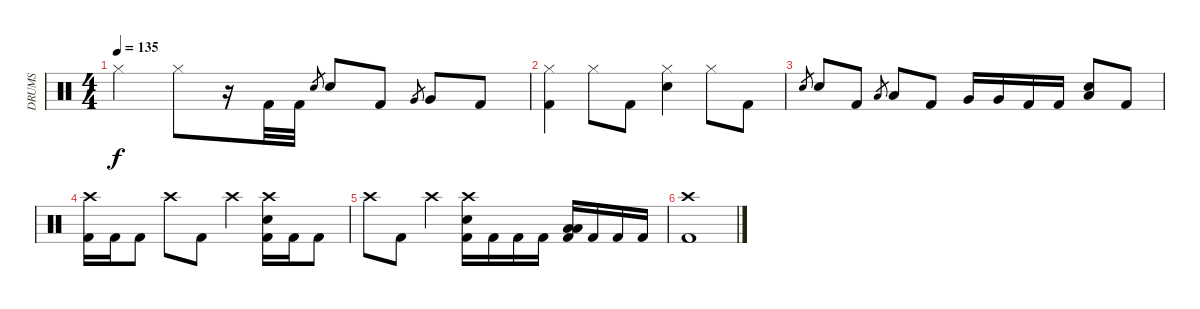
\track ("DRUMS" "DRUMS") {instrument percussion}
\staff {score}
\articulation defaults
\ts (4 4)
\tempo 135
\clef neutral
\ks c "Hi-Hat (closed)".4{dy f} "Hi-Hat (closed)".8
r.16 "Kick (hit) 2".32 "Kick (hit) 2".32 "Electric Snare (hit)".8{gr} "Electric Snare (hit)".8 "Kick (hit) 2".8 "Very Low Tom (hit)".8{gr} "Very Low Tom (hit)".8 "Kick (hit) 2".8 |
("Hi-Hat (closed)" "Kick (hit) 2").4 "Hi-Hat (closed)".8 "Kick (hit) 2".8 ("Hi-Hat (closed)" "Electric Snare (hit)").4 "Hi-Hat (closed)".8 "Kick (hit) 2".8 |
"Electric Snare (hit)".8{gr} "Electric Snare (hit)".8 "Kick (hit) 2".8 "Low Tom (hit)".8{gr} "Low Tom (hit)".8 "Kick (hit) 2".8 "Very Low Tom (hit)".16 "Very Low Tom (hit)".16 "Kick (hit) 2".16 "Kick (hit) 2".16 ("Low Floor Tom (hit)" "Electric Snare (hit)").8 "Kick (hit) 2".8 |
("Crash high (hit)" "Kick (hit) 2").16 "Kick (hit) 2".16 "Kick (hit) 2".8 "Crash high (hit)".8 "Kick (hit) 2".8 "Crash high (hit)".4 ("Crash high (hit)" "Electric Snare (hit)" "Kick (hit) 2").16 "Kick (hit) 2".16 "Kick (hit) 2".8 |
"Crash high (hit)".8 "Kick (hit) 2".8 "Crash high (hit)".4 ("Crash high (hit)" "Electric Snare (hit)" "Kick (hit) 2").16 "Kick (hit) 2".16 "Kick (hit) 2".16 "Kick (hit) 2".16 ("Low Tom (hit)" "Low Floor Tom (hit)" "Kick (hit) 2").16 "Kick (hit) 2".16 "Kick (hit) 2".16 "Kick (hit) 2".16 |
("Crash high (hit)" "Kick (hit) 2").1
